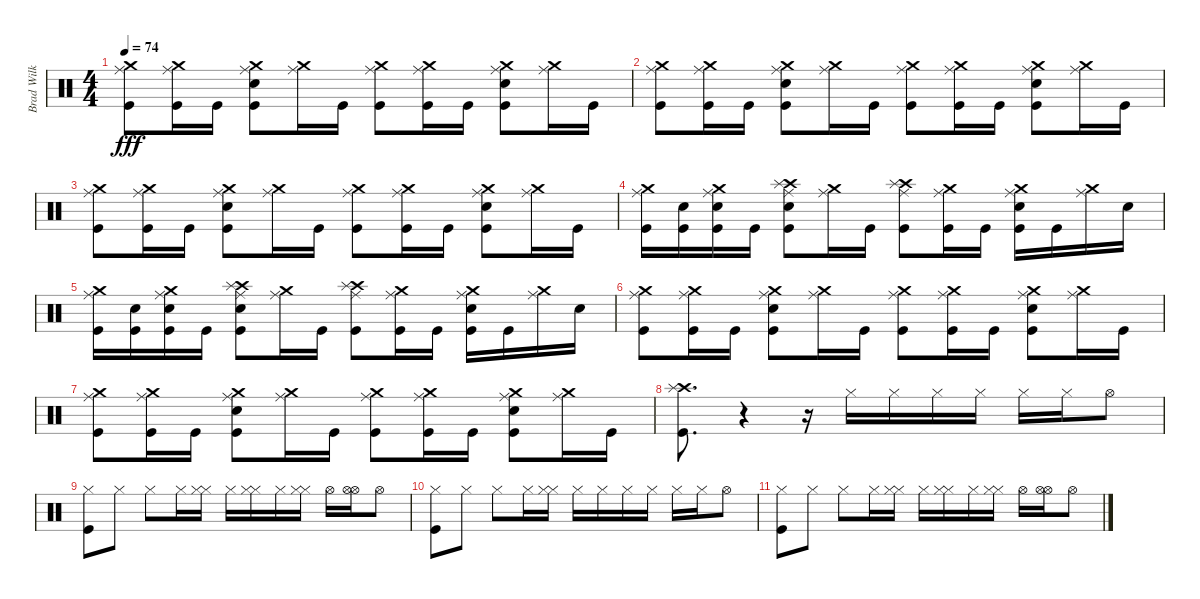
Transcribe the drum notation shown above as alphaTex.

\track ("Brad Wilk" "Brad Wilk") {instrument percussion}
\staff {score}
\articulation defaults
\ts (4 4)
\tempo 74
\clef neutral
\ks c
("Crash medium (hit)" "Kick (hit)" "Ride (middle)").8{dy fff} ("Crash medium (hit)" "Kick (hit)" "Ride (middle)").16 "Kick (hit)".16 ("Crash medium (hit)" "Kick (hit)" "Electric Snare (hit)" "Ride (middle)").8 ("Crash medium (hit)" "Ride (middle)").16 "Kick (hit)".16 ("Crash medium (hit)" "Kick (hit)" "Ride (middle)").8 ("Crash medium (hit)" "Kick (hit)" "Ride (middle)").16 "Kick (hit)".16 ("Crash medium (hit)" "Kick (hit)" "Electric Snare (hit)" "Ride (middle)").8 ("Crash medium (hit)" "Ride (middle)").16 "Kick (hit)".16 |
("Crash medium (hit)" "Kick (hit)" "Ride (middle)").8 ("Crash medium (hit)" "Kick (hit)" "Ride (middle)").16 "Kick (hit)".16 ("Crash medium (hit)" "Kick (hit)" "Electric Snare (hit)" "Ride (middle)").8 ("Crash medium (hit)" "Ride (middle)").16 "Kick (hit)".16 ("Crash medium (hit)" "Kick (hit)" "Ride (middle)").8 ("Crash medium (hit)" "Kick (hit)" "Ride (middle)").16 "Kick (hit)".16 ("Crash medium (hit)" "Kick (hit)" "Electric Snare (hit)" "Ride (middle)").8 ("Crash medium (hit)" "Ride (middle)").16 "Kick (hit)".16 |
("Crash medium (hit)" "Kick (hit)" "Ride (middle)").8 ("Crash medium (hit)" "Kick (hit)" "Ride (middle)").16 "Kick (hit)".16 ("Crash medium (hit)" "Kick (hit)" "Electric Snare (hit)" "Ride (middle)").8 ("Crash medium (hit)" "Ride (middle)").16 "Kick (hit)".16 ("Crash medium (hit)" "Kick (hit)" "Ride (middle)").8 ("Crash medium (hit)" "Kick (hit)" "Ride (middle)").16 "Kick (hit)".16 ("Crash medium (hit)" "Kick (hit)" "Electric Snare (hit)" "Ride (middle)").8 ("Crash medium (hit)" "Ride (middle)").16 "Kick (hit)".16 |
("Crash medium (hit)" "Kick (hit)" "Ride (middle)").16 ("Kick (hit)" "Electric Snare (hit)").16 ("Crash medium (hit)" "Kick (hit)" "Electric Snare (hit)" "Ride (middle)").16 "Kick (hit)".16 ("Crash high (hit)" "Splash (hit)" "Kick (hit)" "Electric Snare (hit)" "Ride (middle)").8 ("Crash medium (hit)" "Ride (middle)").16 "Kick (hit)".16 ("Crash high (hit)" "Splash (hit)" "Kick (hit)" "Ride (middle)").8 ("Crash medium (hit)" "Kick (hit)" "Ride (middle)").16 "Kick (hit)".16 ("Crash medium (hit)" "Kick (hit)" "Electric Snare (hit)" "Ride (middle)").16 "Kick (hit)".16 ("Crash medium (hit)" "Ride (middle)").16 "Electric Snare (hit)".16 |
("Crash medium (hit)" "Kick (hit)" "Ride (middle)").16 ("Kick (hit)" "Electric Snare (hit)").16 ("Crash medium (hit)" "Kick (hit)" "Electric Snare (hit)" "Ride (middle)").16 "Kick (hit)".16 ("Crash high (hit)" "Splash (hit)" "Kick (hit)" "Electric Snare (hit)" "Ride (middle)").8 ("Crash medium (hit)" "Ride (middle)").16 "Kick (hit)".16 ("Crash high (hit)" "Splash (hit)" "Kick (hit)" "Ride (middle)").8 ("Crash medium (hit)" "Kick (hit)" "Ride (middle)").16 "Kick (hit)".16 ("Crash medium (hit)" "Kick (hit)" "Electric Snare (hit)" "Ride (middle)").16 "Kick (hit)".16 ("Crash medium (hit)" "Ride (middle)").16 "Electric Snare (hit)".16 |
("Crash medium (hit)" "Kick (hit)" "Ride (middle)").8 ("Crash medium (hit)" "Kick (hit)" "Ride (middle)").16 "Kick (hit)".16 ("Crash medium (hit)" "Kick (hit)" "Electric Snare (hit)" "Ride (middle)").8 ("Crash medium (hit)" "Ride (middle)").16 "Kick (hit)".16 ("Crash medium (hit)" "Kick (hit)" "Ride (middle)").8 ("Crash medium (hit)" "Kick (hit)" "Ride (middle)").16 "Kick (hit)".16 ("Crash medium (hit)" "Kick (hit)" "Electric Snare (hit)" "Ride (middle)").8 ("Crash medium (hit)" "Ride (middle)").16 "Kick (hit)".16 |
("Crash medium (hit)" "Kick (hit)" "Ride (middle)").8 ("Crash medium (hit)" "Kick (hit)" "Ride (middle)").16 "Kick (hit)".16 ("Crash medium (hit)" "Kick (hit)" "Electric Snare (hit)" "Ride (middle)").8 ("Crash medium (hit)" "Ride (middle)").16 "Kick (hit)".16 ("Crash medium (hit)" "Kick (hit)" "Ride (middle)").8 ("Crash medium (hit)" "Kick (hit)" "Ride (middle)").16 "Kick (hit)".16 ("Crash medium (hit)" "Kick (hit)" "Electric Snare (hit)" "Ride (middle)").8 ("Crash medium (hit)" "Ride (middle)").16 "Kick (hit)".16 |
("Crash high (hit)" "Splash (hit)" "Kick (hit)").8{d} r.4 r.16 "Hi-Hat (closed)".16 "Hi-Hat (closed)".16 "Hi-Hat (closed)".16 "Hi-Hat (closed)".16 "Hi-Hat (closed)".16 "Hi-Hat (closed)".16 "Hi-Hat (open)".8 |
("Kick (hit)" "Hi-Hat (closed)").8 "Hi-Hat (closed)".8 "Hi-Hat (closed)".8 "Hi-Hat (closed)".16 ("Hi-Hat (closed)" "Hi-Hat (closed)").16 "Hi-Hat (closed)".16 ("Hi-Hat (closed)" "Hi-Hat (closed)").16 "Hi-Hat (closed)".16 ("Hi-Hat (closed)" "Hi-Hat (closed)").16 "Hi-Hat (open)".16 ("Hi-Hat (open)" "Hi-Hat (open)").16 "Hi-Hat (open)".8 |
("Kick (hit)" "Hi-Hat (closed)").8 "Hi-Hat (closed)".8 "Hi-Hat (closed)".8 "Hi-Hat (closed)".16 ("Hi-Hat (closed)" "Hi-Hat (closed)").16 "Hi-Hat (closed)".16 "Hi-Hat (closed)".16 "Hi-Hat (closed)".16 "Hi-Hat (closed)".16 "Hi-Hat (closed)".16 "Hi-Hat (closed)".16 "Hi-Hat (open)".8 |
("Kick (hit)" "Hi-Hat (closed)").8 "Hi-Hat (closed)".8 "Hi-Hat (closed)".8 "Hi-Hat (closed)".16 ("Hi-Hat (closed)" "Hi-Hat (closed)").16 "Hi-Hat (closed)".16 ("Hi-Hat (closed)" "Hi-Hat (closed)").16 "Hi-Hat (closed)".16 ("Hi-Hat (closed)" "Hi-Hat (closed)").16 "Hi-Hat (open)".16 ("Hi-Hat (open)" "Hi-Hat (open)").16 "Hi-Hat (open)".8
